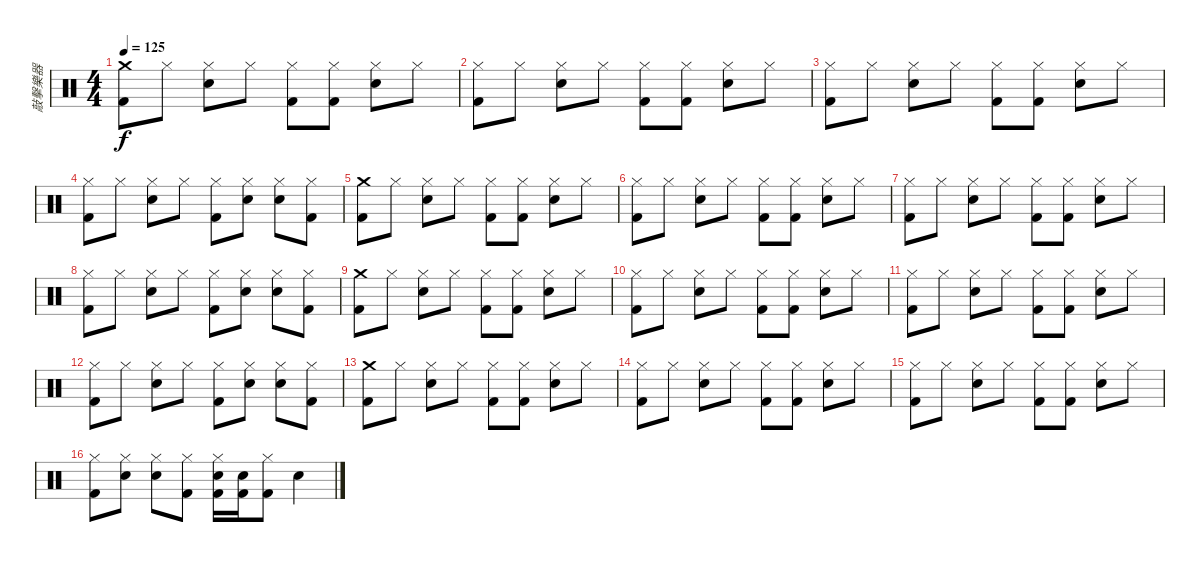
\track ("敲擊樂器" "敲擊樂器") {instrument percussion}
\staff {score}
\articulation defaults
\ts (4 4)
\tempo 125
\clef neutral
\ks c
("Crash medium (hit)" "Kick (hit) 2").8{dy f} "Hi-Hat (closed)".8 ("Hi-Hat (closed)" "Snare (hit) 2").8 "Hi-Hat (closed)".8 ("Hi-Hat (closed)" "Kick (hit) 2").8 ("Hi-Hat (closed)" "Kick (hit) 2").8 ("Hi-Hat (closed)" "Snare (hit) 2").8 "Hi-Hat (closed)".8 |
("Hi-Hat (closed)" "Kick (hit) 2").8 "Hi-Hat (closed)".8 ("Hi-Hat (closed)" "Snare (hit) 2").8 "Hi-Hat (closed)".8 ("Hi-Hat (closed)" "Kick (hit) 2").8 ("Hi-Hat (closed)" "Kick (hit) 2").8 ("Hi-Hat (closed)" "Snare (hit) 2").8 "Hi-Hat (closed)".8 |
("Hi-Hat (closed)" "Kick (hit) 2").8 "Hi-Hat (closed)".8 ("Hi-Hat (closed)" "Snare (hit) 2").8 "Hi-Hat (closed)".8 ("Hi-Hat (closed)" "Kick (hit) 2").8 ("Hi-Hat (closed)" "Kick (hit) 2").8 ("Hi-Hat (closed)" "Snare (hit) 2").8 "Hi-Hat (closed)".8 |
("Hi-Hat (closed)" "Kick (hit) 2").8 "Hi-Hat (closed)".8 ("Hi-Hat (closed)" "Snare (hit) 2").8 "Hi-Hat (closed)".8 ("Hi-Hat (closed)" "Kick (hit) 2").8 ("Hi-Hat (closed)" "Snare (hit) 2").8 ("Hi-Hat (closed)" "Snare (hit) 2").8 ("Hi-Hat (closed)" "Kick (hit) 2").8 |
("Crash medium (hit)" "Kick (hit) 2").8 "Hi-Hat (closed)".8 ("Hi-Hat (closed)" "Snare (hit) 2").8 "Hi-Hat (closed)".8 ("Hi-Hat (closed)" "Kick (hit) 2").8 ("Hi-Hat (closed)" "Kick (hit) 2").8 ("Hi-Hat (closed)" "Snare (hit) 2").8 "Hi-Hat (closed)".8 |
("Hi-Hat (closed)" "Kick (hit) 2").8 "Hi-Hat (closed)".8 ("Hi-Hat (closed)" "Snare (hit) 2").8 "Hi-Hat (closed)".8 ("Hi-Hat (closed)" "Kick (hit) 2").8 ("Hi-Hat (closed)" "Kick (hit) 2").8 ("Hi-Hat (closed)" "Snare (hit) 2").8 "Hi-Hat (closed)".8 |
("Hi-Hat (closed)" "Kick (hit) 2").8 "Hi-Hat (closed)".8 ("Hi-Hat (closed)" "Snare (hit) 2").8 "Hi-Hat (closed)".8 ("Hi-Hat (closed)" "Kick (hit) 2").8 ("Hi-Hat (closed)" "Kick (hit) 2").8 ("Hi-Hat (closed)" "Snare (hit) 2").8 "Hi-Hat (closed)".8 |
("Hi-Hat (closed)" "Kick (hit) 2").8 "Hi-Hat (closed)".8 ("Hi-Hat (closed)" "Snare (hit) 2").8 "Hi-Hat (closed)".8 ("Hi-Hat (closed)" "Kick (hit) 2").8 ("Hi-Hat (closed)" "Snare (hit) 2").8 ("Hi-Hat (closed)" "Snare (hit) 2").8 ("Hi-Hat (closed)" "Kick (hit) 2").8 |
("Crash medium (hit)" "Kick (hit) 2").8 "Hi-Hat (closed)".8 ("Hi-Hat (closed)" "Snare (hit) 2").8 "Hi-Hat (closed)".8 ("Hi-Hat (closed)" "Kick (hit) 2").8 ("Hi-Hat (closed)" "Kick (hit) 2").8 ("Hi-Hat (closed)" "Snare (hit) 2").8 "Hi-Hat (closed)".8 |
("Hi-Hat (closed)" "Kick (hit) 2").8 "Hi-Hat (closed)".8 ("Hi-Hat (closed)" "Snare (hit) 2").8 "Hi-Hat (closed)".8 ("Hi-Hat (closed)" "Kick (hit) 2").8 ("Hi-Hat (closed)" "Kick (hit) 2").8 ("Hi-Hat (closed)" "Snare (hit) 2").8 "Hi-Hat (closed)".8 |
("Hi-Hat (closed)" "Kick (hit) 2").8 "Hi-Hat (closed)".8 ("Hi-Hat (closed)" "Snare (hit) 2").8 "Hi-Hat (closed)".8 ("Hi-Hat (closed)" "Kick (hit) 2").8 ("Hi-Hat (closed)" "Kick (hit) 2").8 ("Hi-Hat (closed)" "Snare (hit) 2").8 "Hi-Hat (closed)".8 |
("Hi-Hat (closed)" "Kick (hit) 2").8 "Hi-Hat (closed)".8 ("Hi-Hat (closed)" "Snare (hit) 2").8 "Hi-Hat (closed)".8 ("Hi-Hat (closed)" "Kick (hit) 2").8 ("Hi-Hat (closed)" "Snare (hit) 2").8 ("Hi-Hat (closed)" "Snare (hit) 2").8 ("Hi-Hat (closed)" "Kick (hit) 2").8 |
("Crash medium (hit)" "Kick (hit) 2").8 "Hi-Hat (closed)".8 ("Hi-Hat (closed)" "Snare (hit) 2").8 "Hi-Hat (closed)".8 ("Hi-Hat (closed)" "Kick (hit) 2").8 ("Hi-Hat (closed)" "Kick (hit) 2").8 ("Hi-Hat (closed)" "Snare (hit) 2").8 "Hi-Hat (closed)".8 |
("Hi-Hat (closed)" "Kick (hit) 2").8 "Hi-Hat (closed)".8 ("Hi-Hat (closed)" "Snare (hit) 2").8 "Hi-Hat (closed)".8 ("Hi-Hat (closed)" "Kick (hit) 2").8 ("Hi-Hat (closed)" "Kick (hit) 2").8 ("Hi-Hat (closed)" "Snare (hit) 2").8 "Hi-Hat (closed)".8 |
("Hi-Hat (closed)" "Kick (hit) 2").8 "Hi-Hat (closed)".8 ("Hi-Hat (closed)" "Snare (hit) 2").8 "Hi-Hat (closed)".8 ("Hi-Hat (closed)" "Kick (hit) 2").8 ("Hi-Hat (closed)" "Kick (hit) 2").8 ("Hi-Hat (closed)" "Snare (hit) 2").8 "Hi-Hat (closed)".8 |
("Hi-Hat (closed)" "Kick (hit) 2").8 ("Hi-Hat (closed)" "Snare (hit) 2").8 ("Hi-Hat (closed)" "Snare (hit) 2").8 ("Hi-Hat (closed)" "Kick (hit) 2").8 ("Hi-Hat (closed)" "Snare (hit) 2" "Kick (hit) 2").16 ("Snare (hit) 2" "Kick (hit) 2").16 ("Hi-Hat (closed)" "Kick (hit) 2").8 "Snare (hit) 2".4
